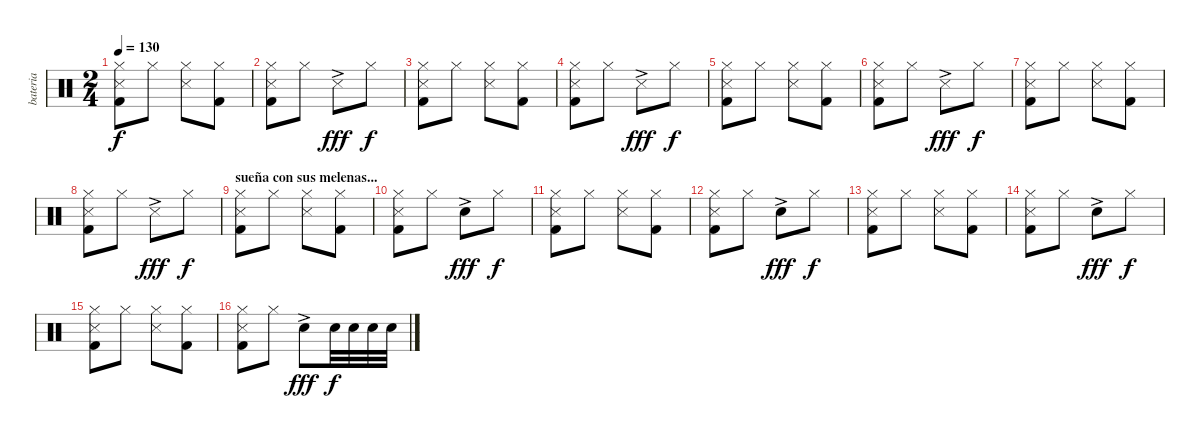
\track ("bateria" "bateria") {instrument percussion}
\staff {score}
\articulation defaults
\ts (2 4)
\tempo 130
\clef neutral
\ks c
("Hi-Hat (closed)" "Snare (side stick) 3" "Kick (hit) 2").8{dy f} "Hi-Hat (closed)".8 ("Hi-Hat (closed)" "Snare (side stick) 3").8 ("Hi-Hat (closed)" "Kick (hit) 2").8 |
("Hi-Hat (closed)" "Snare (side stick) 3" "Kick (hit) 2").8 "Hi-Hat (closed)".8 "Snare (side stick) 3"{ac}.8{dy fff} "Hi-Hat (closed)".8{dy f} |
("Hi-Hat (closed)" "Snare (side stick) 3" "Kick (hit) 2").8 "Hi-Hat (closed)".8 ("Hi-Hat (closed)" "Snare (side stick) 3").8 ("Hi-Hat (closed)" "Kick (hit) 2").8 |
("Hi-Hat (closed)" "Snare (side stick) 3" "Kick (hit) 2").8 "Hi-Hat (closed)".8 "Snare (side stick) 3"{ac}.8{dy fff} "Hi-Hat (closed)".8{dy f} |
("Hi-Hat (closed)" "Snare (side stick) 3" "Kick (hit) 2").8 "Hi-Hat (closed)".8 ("Hi-Hat (closed)" "Snare (side stick) 3").8 ("Hi-Hat (closed)" "Kick (hit) 2").8 |
("Hi-Hat (closed)" "Snare (side stick) 3" "Kick (hit) 2").8 "Hi-Hat (closed)".8 "Snare (side stick) 3"{ac}.8{dy fff} "Hi-Hat (closed)".8{dy f} |
("Hi-Hat (closed)" "Snare (side stick) 3" "Kick (hit) 2").8 "Hi-Hat (closed)".8 ("Hi-Hat (closed)" "Snare (side stick) 3").8 ("Hi-Hat (closed)" "Kick (hit) 2").8 |
("Hi-Hat (closed)" "Snare (side stick) 3" "Kick (hit) 2").8 "Hi-Hat (closed)".8 "Snare (side stick) 3"{ac}.8{dy fff} "Hi-Hat (closed)".8{dy f} |
\section ("" "sueña con sus melenas...")
("Hi-Hat (closed)" "Snare (side stick) 3" "Kick (hit) 2").8 "Hi-Hat (closed)".8 ("Hi-Hat (closed)" "Snare (side stick) 3").8 ("Hi-Hat (closed)" "Kick (hit) 2").8 |
("Hi-Hat (closed)" "Snare (side stick) 3" "Kick (hit) 2").8 "Hi-Hat (closed)".8 "Electric Snare (hit)"{ac}.8{dy fff} "Hi-Hat (closed)".8{dy f} |
("Hi-Hat (closed)" "Snare (side stick) 3" "Kick (hit) 2").8 "Hi-Hat (closed)".8 ("Hi-Hat (closed)" "Snare (side stick) 3").8 ("Hi-Hat (closed)" "Kick (hit) 2").8 |
("Hi-Hat (closed)" "Snare (side stick) 3" "Kick (hit) 2").8 "Hi-Hat (closed)".8 "Electric Snare (hit)"{ac}.8{dy fff} "Hi-Hat (closed)".8{dy f} |
("Hi-Hat (closed)" "Snare (side stick) 3" "Kick (hit) 2").8 "Hi-Hat (closed)".8 ("Hi-Hat (closed)" "Snare (side stick) 3").8 ("Hi-Hat (closed)" "Kick (hit) 2").8 |
("Hi-Hat (closed)" "Snare (side stick) 3" "Kick (hit) 2").8 "Hi-Hat (closed)".8 "Electric Snare (hit)"{ac}.8{dy fff} "Hi-Hat (closed)".8{dy f} |
("Hi-Hat (closed)" "Snare (side stick) 3" "Kick (hit) 2").8 "Hi-Hat (closed)".8 ("Hi-Hat (closed)" "Snare (side stick) 3").8 ("Hi-Hat (closed)" "Kick (hit) 2").8 |
("Hi-Hat (closed)" "Snare (side stick) 3" "Kick (hit) 2").8 "Hi-Hat (closed)".8 "Electric Snare (hit)"{ac}.8{dy fff} "Electric Snare (hit)".32{dy f} "Electric Snare (hit)".32 "Electric Snare (hit)".32 "Electric Snare (hit)".32
